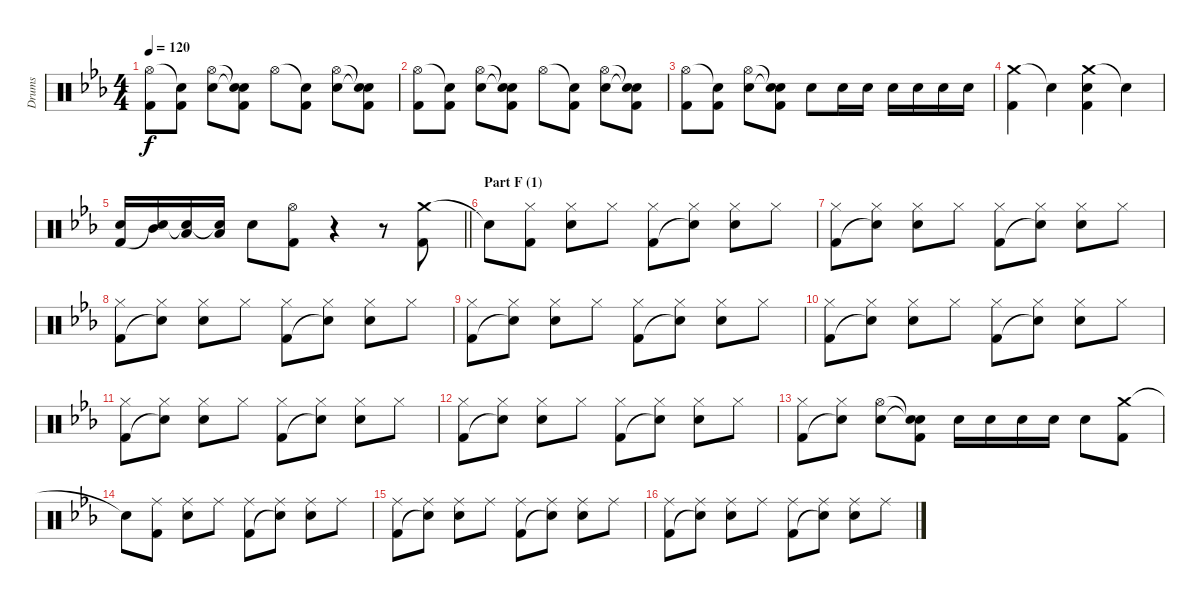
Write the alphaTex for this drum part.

\track ("Drums" "Drums") {instrument percussion}
\staff {score}
\articulation defaults
\ts (4 4)
\tempo 120
\clef neutral
\ks eb
("Hi-Hat (open)" "Kick (hit) 2").8{dy f} ("Snare (hit)"{t} "Kick (hit) 2").8 ("Hi-Hat (open)" "Electric Snare (hit)").8 ("Snare (hit)"{t} "Snare (hit)"{t} "Kick (hit) 2").8 "Hi-Hat (open)".8 ("Snare (hit)"{t} "Kick (hit) 2").8 ("Hi-Hat (open)" "Electric Snare (hit)").8 ("Snare (hit)"{t} "Snare (hit)"{t} "Kick (hit) 2").8 |
("Hi-Hat (open)" "Kick (hit) 2").8 ("Snare (hit)"{t} "Kick (hit) 2").8 ("Hi-Hat (open)" "Electric Snare (hit)").8 ("Snare (hit)"{t} "Snare (hit)"{t} "Kick (hit) 2").8 "Hi-Hat (open)".8 ("Snare (hit)"{t} "Kick (hit) 2").8 ("Hi-Hat (open)" "Electric Snare (hit)").8 ("Snare (hit)"{t} "Snare (hit)"{t} "Kick (hit) 2").8 |
("Hi-Hat (open)" "Kick (hit) 2").8 ("Snare (hit)"{t} "Kick (hit) 2").8 ("Hi-Hat (open)" "Electric Snare (hit)").8 ("Snare (hit)"{t} "Snare (hit)"{t} "Kick (hit) 2").8 "Electric Snare (hit)".8 "Electric Snare (hit)".16 "Electric Snare (hit)".16 "Electric Snare (hit)".16 "Electric Snare (hit)".16 "Electric Snare (hit)".16 "Electric Snare (hit)".16 |
("Crash medium (hit)" "Kick (hit) 2").4 "Snare (hit)"{t}.4 ("Crash medium (hit)" "Electric Snare (hit)" "Kick (hit) 2").4 "Snare (hit)"{t}.4 |
\barLineRight lightlight
("Electric Snare (hit)" "Kick (hit) 2").16 ("Mid Tom (hit)" "Snare (hit)"{t}).16 ("Low Tom (hit)" "Snare (hit)"{t}).16 ("Low Floor Tom (hit)" "Snare (hit)"{t}).16 "Electric Snare (hit)".8 ("Hi-Hat (open)" "Kick (hit) 2").8 r.4 r.8 ("Crash medium (hit)" "Kick (hit) 2").8 |
\section ("" "Part F (1)")
"Snare (hit)"{t}.8 ("Hi-Hat (closed)" "Kick (hit) 2").8 ("Hi-Hat (closed)" "Electric Snare (hit)").8 "Hi-Hat (closed)".8 ("Hi-Hat (closed)" "Kick (hit) 2").8 ("Hi-Hat (closed)" "Snare (hit)"{t}).8 ("Hi-Hat (closed)" "Electric Snare (hit)").8 "Hi-Hat (closed)".8 |
("Hi-Hat (closed)" "Kick (hit) 2").8 ("Hi-Hat (closed)" "Snare (hit)"{t}).8 ("Hi-Hat (closed)" "Electric Snare (hit)").8 "Hi-Hat (closed)".8 ("Hi-Hat (closed)" "Kick (hit) 2").8 ("Hi-Hat (closed)" "Snare (hit)"{t}).8 ("Hi-Hat (closed)" "Electric Snare (hit)").8 "Hi-Hat (closed)".8 |
("Hi-Hat (closed)" "Kick (hit) 2").8 ("Hi-Hat (closed)" "Snare (hit)"{t}).8 ("Hi-Hat (closed)" "Electric Snare (hit)").8 "Hi-Hat (closed)".8 ("Hi-Hat (closed)" "Kick (hit) 2").8 ("Hi-Hat (closed)" "Snare (hit)"{t}).8 ("Hi-Hat (closed)" "Electric Snare (hit)").8 "Hi-Hat (closed)".8 |
("Hi-Hat (closed)" "Kick (hit) 2").8 ("Hi-Hat (closed)" "Snare (hit)"{t}).8 ("Hi-Hat (closed)" "Electric Snare (hit)").8 "Hi-Hat (closed)".8 ("Hi-Hat (closed)" "Kick (hit) 2").8 ("Hi-Hat (closed)" "Snare (hit)"{t}).8 ("Hi-Hat (closed)" "Electric Snare (hit)").8 "Hi-Hat (closed)".8 |
("Hi-Hat (closed)" "Kick (hit) 2").8 ("Hi-Hat (closed)" "Snare (hit)"{t}).8 ("Hi-Hat (closed)" "Electric Snare (hit)").8 "Hi-Hat (closed)".8 ("Hi-Hat (closed)" "Kick (hit) 2").8 ("Hi-Hat (closed)" "Snare (hit)"{t}).8 ("Hi-Hat (closed)" "Electric Snare (hit)").8 "Hi-Hat (closed)".8 |
("Hi-Hat (closed)" "Kick (hit) 2").8 ("Hi-Hat (closed)" "Snare (hit)"{t}).8 ("Hi-Hat (closed)" "Electric Snare (hit)").8 "Hi-Hat (closed)".8 ("Hi-Hat (closed)" "Kick (hit) 2").8 ("Hi-Hat (closed)" "Snare (hit)"{t}).8 ("Hi-Hat (closed)" "Electric Snare (hit)").8 "Hi-Hat (closed)".8 |
("Hi-Hat (closed)" "Kick (hit) 2").8 ("Hi-Hat (closed)" "Snare (hit)"{t}).8 ("Hi-Hat (closed)" "Electric Snare (hit)").8 "Hi-Hat (closed)".8 ("Hi-Hat (closed)" "Kick (hit) 2").8 ("Hi-Hat (closed)" "Snare (hit)"{t}).8 ("Hi-Hat (closed)" "Electric Snare (hit)").8 "Hi-Hat (closed)".8 |
("Hi-Hat (closed)" "Kick (hit) 2").8 ("Hi-Hat (closed)" "Snare (hit)"{t}).8 ("Hi-Hat (open)" "Electric Snare (hit)").8 ("Snare (hit)"{t} "Snare (hit)"{t} "Kick (hit) 2").8 "Electric Snare (hit)".16 "Electric Snare (hit)".16 "Electric Snare (hit)".16 "Electric Snare (hit)".16 "Electric Snare (hit)".8 ("Crash medium (hit)" "Kick (hit) 2").8 |
"Snare (hit)"{t}.8 ("Ride (middle)" "Kick (hit) 2").8 ("Ride (middle)" "Electric Snare (hit)").8 "Ride (middle)".8 ("Ride (middle)" "Kick (hit) 2").8 ("Ride (middle)" "Snare (hit)"{t}).8 ("Ride (middle)" "Electric Snare (hit)").8 "Ride (middle)".8 |
("Ride (middle)" "Kick (hit) 2").8 ("Ride (middle)" "Snare (hit)"{t}).8 ("Ride (middle)" "Electric Snare (hit)").8 "Ride (middle)".8 ("Ride (middle)" "Kick (hit) 2").8 ("Ride (middle)" "Snare (hit)"{t}).8 ("Ride (middle)" "Electric Snare (hit)").8 "Ride (middle)".8 |
("Ride (middle)" "Kick (hit) 2").8 ("Ride (middle)" "Snare (hit)"{t}).8 ("Ride (middle)" "Electric Snare (hit)").8 "Ride (middle)".8 ("Ride (middle)" "Kick (hit) 2").8 ("Ride (middle)" "Snare (hit)"{t}).8 ("Ride (middle)" "Electric Snare (hit)").8 "Ride (middle)".8
